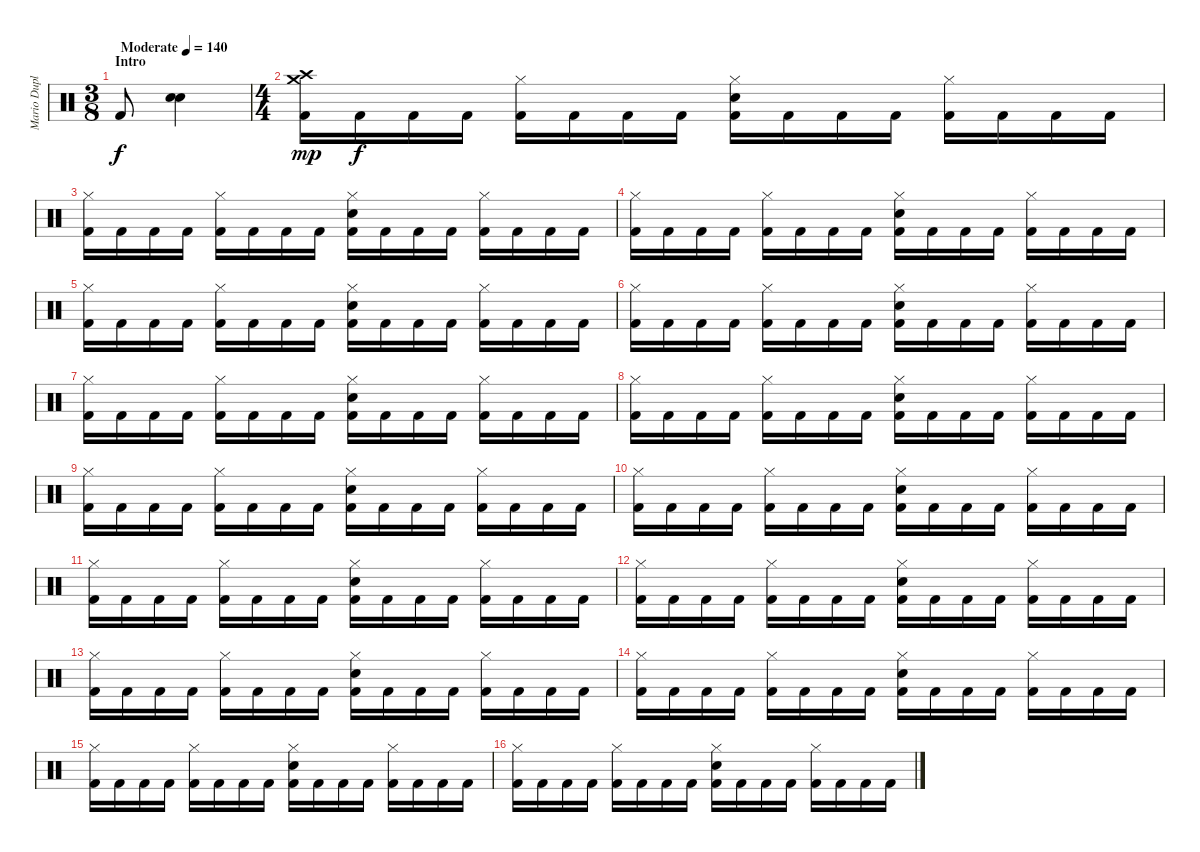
\track ("Mario Duplantier" "Mario Dupl") {instrument percussion}
\staff {score}
\articulation defaults
\ts (3 8)
\section ("" "Intro")
\tempo (140 "Moderate")
\clef neutral
\ks c "Kick (hit) 2".8{dy f}
("Electric Snare (hit)" "Snare (hit) 2").4 |
\ts (4 4)
("Crash medium (hit)" "Crash high (hit)" "Kick (hit) 2").16{dy mp} "Kick (hit) 2".16{dy f} "Kick (hit) 2".16 "Kick (hit) 2".16 ("Hi-Hat (closed)" "Kick (hit) 2").16 "Kick (hit) 2".16 "Kick (hit) 2".16 "Kick (hit) 2".16 ("Hi-Hat (closed)" "Snare (hit) 2" "Kick (hit) 2").16 "Kick (hit) 2".16 "Kick (hit) 2".16 "Kick (hit) 2".16 ("Hi-Hat (closed)" "Kick (hit) 2").16 "Kick (hit) 2".16 "Kick (hit) 2".16 "Kick (hit) 2".16 |
("Hi-Hat (closed)" "Kick (hit) 2").16 "Kick (hit) 2".16 "Kick (hit) 2".16 "Kick (hit) 2".16 ("Hi-Hat (closed)" "Kick (hit) 2").16 "Kick (hit) 2".16 "Kick (hit) 2".16 "Kick (hit) 2".16 ("Hi-Hat (closed)" "Snare (hit) 2" "Kick (hit) 2").16 "Kick (hit) 2".16 "Kick (hit) 2".16 "Kick (hit) 2".16 ("Hi-Hat (closed)" "Kick (hit) 2").16 "Kick (hit) 2".16 "Kick (hit) 2".16 "Kick (hit) 2".16 |
("Hi-Hat (closed)" "Kick (hit) 2").16 "Kick (hit) 2".16 "Kick (hit) 2".16 "Kick (hit) 2".16 ("Hi-Hat (closed)" "Kick (hit) 2").16 "Kick (hit) 2".16 "Kick (hit) 2".16 "Kick (hit) 2".16 ("Hi-Hat (closed)" "Snare (hit) 2" "Kick (hit) 2").16 "Kick (hit) 2".16 "Kick (hit) 2".16 "Kick (hit) 2".16 ("Hi-Hat (closed)" "Kick (hit) 2").16 "Kick (hit) 2".16 "Kick (hit) 2".16 "Kick (hit) 2".16 |
("Hi-Hat (closed)" "Kick (hit) 2").16 "Kick (hit) 2".16 "Kick (hit) 2".16 "Kick (hit) 2".16 ("Hi-Hat (closed)" "Kick (hit) 2").16 "Kick (hit) 2".16 "Kick (hit) 2".16 "Kick (hit) 2".16 ("Hi-Hat (closed)" "Snare (hit) 2" "Kick (hit) 2").16 "Kick (hit) 2".16 "Kick (hit) 2".16 "Kick (hit) 2".16 ("Hi-Hat (closed)" "Kick (hit) 2").16 "Kick (hit) 2".16 "Kick (hit) 2".16 "Kick (hit) 2".16 |
("Hi-Hat (closed)" "Kick (hit) 2").16 "Kick (hit) 2".16 "Kick (hit) 2".16 "Kick (hit) 2".16 ("Hi-Hat (closed)" "Kick (hit) 2").16 "Kick (hit) 2".16 "Kick (hit) 2".16 "Kick (hit) 2".16 ("Hi-Hat (closed)" "Snare (hit) 2" "Kick (hit) 2").16 "Kick (hit) 2".16 "Kick (hit) 2".16 "Kick (hit) 2".16 ("Hi-Hat (closed)" "Kick (hit) 2").16 "Kick (hit) 2".16 "Kick (hit) 2".16 "Kick (hit) 2".16 |
("Hi-Hat (closed)" "Kick (hit) 2").16 "Kick (hit) 2".16 "Kick (hit) 2".16 "Kick (hit) 2".16 ("Hi-Hat (closed)" "Kick (hit) 2").16 "Kick (hit) 2".16 "Kick (hit) 2".16 "Kick (hit) 2".16 ("Hi-Hat (closed)" "Snare (hit) 2" "Kick (hit) 2").16 "Kick (hit) 2".16 "Kick (hit) 2".16 "Kick (hit) 2".16 ("Hi-Hat (closed)" "Kick (hit) 2").16 "Kick (hit) 2".16 "Kick (hit) 2".16 "Kick (hit) 2".16 |
("Hi-Hat (closed)" "Kick (hit) 2").16 "Kick (hit) 2".16 "Kick (hit) 2".16 "Kick (hit) 2".16 ("Hi-Hat (closed)" "Kick (hit) 2").16 "Kick (hit) 2".16 "Kick (hit) 2".16 "Kick (hit) 2".16 ("Hi-Hat (closed)" "Snare (hit) 2" "Kick (hit) 2").16 "Kick (hit) 2".16 "Kick (hit) 2".16 "Kick (hit) 2".16 ("Hi-Hat (closed)" "Kick (hit) 2").16 "Kick (hit) 2".16 "Kick (hit) 2".16 "Kick (hit) 2".16 |
("Hi-Hat (closed)" "Kick (hit) 2").16 "Kick (hit) 2".16 "Kick (hit) 2".16 "Kick (hit) 2".16 ("Hi-Hat (closed)" "Kick (hit) 2").16 "Kick (hit) 2".16 "Kick (hit) 2".16 "Kick (hit) 2".16 ("Hi-Hat (closed)" "Snare (hit) 2" "Kick (hit) 2").16 "Kick (hit) 2".16 "Kick (hit) 2".16 "Kick (hit) 2".16 ("Hi-Hat (closed)" "Kick (hit) 2").16 "Kick (hit) 2".16 "Kick (hit) 2".16 "Kick (hit) 2".16 |
("Hi-Hat (closed)" "Kick (hit) 2").16 "Kick (hit) 2".16 "Kick (hit) 2".16 "Kick (hit) 2".16 ("Hi-Hat (closed)" "Kick (hit) 2").16 "Kick (hit) 2".16 "Kick (hit) 2".16 "Kick (hit) 2".16 ("Hi-Hat (closed)" "Snare (hit) 2" "Kick (hit) 2").16 "Kick (hit) 2".16 "Kick (hit) 2".16 "Kick (hit) 2".16 ("Hi-Hat (closed)" "Kick (hit) 2").16 "Kick (hit) 2".16 "Kick (hit) 2".16 "Kick (hit) 2".16 |
("Hi-Hat (closed)" "Kick (hit) 2").16 "Kick (hit) 2".16 "Kick (hit) 2".16 "Kick (hit) 2".16 ("Hi-Hat (closed)" "Kick (hit) 2").16 "Kick (hit) 2".16 "Kick (hit) 2".16 "Kick (hit) 2".16 ("Hi-Hat (closed)" "Snare (hit) 2" "Kick (hit) 2").16 "Kick (hit) 2".16 "Kick (hit) 2".16 "Kick (hit) 2".16 ("Hi-Hat (closed)" "Kick (hit) 2").16 "Kick (hit) 2".16 "Kick (hit) 2".16 "Kick (hit) 2".16 |
("Hi-Hat (closed)" "Kick (hit) 2").16 "Kick (hit) 2".16 "Kick (hit) 2".16 "Kick (hit) 2".16 ("Hi-Hat (closed)" "Kick (hit) 2").16 "Kick (hit) 2".16 "Kick (hit) 2".16 "Kick (hit) 2".16 ("Hi-Hat (closed)" "Snare (hit) 2" "Kick (hit) 2").16 "Kick (hit) 2".16 "Kick (hit) 2".16 "Kick (hit) 2".16 ("Hi-Hat (closed)" "Kick (hit) 2").16 "Kick (hit) 2".16 "Kick (hit) 2".16 "Kick (hit) 2".16 |
("Hi-Hat (closed)" "Kick (hit) 2").16 "Kick (hit) 2".16 "Kick (hit) 2".16 "Kick (hit) 2".16 ("Hi-Hat (closed)" "Kick (hit) 2").16 "Kick (hit) 2".16 "Kick (hit) 2".16 "Kick (hit) 2".16 ("Hi-Hat (closed)" "Snare (hit) 2" "Kick (hit) 2").16 "Kick (hit) 2".16 "Kick (hit) 2".16 "Kick (hit) 2".16 ("Hi-Hat (closed)" "Kick (hit) 2").16 "Kick (hit) 2".16 "Kick (hit) 2".16 "Kick (hit) 2".16 |
("Hi-Hat (closed)" "Kick (hit) 2").16 "Kick (hit) 2".16 "Kick (hit) 2".16 "Kick (hit) 2".16 ("Hi-Hat (closed)" "Kick (hit) 2").16 "Kick (hit) 2".16 "Kick (hit) 2".16 "Kick (hit) 2".16 ("Hi-Hat (closed)" "Snare (hit) 2" "Kick (hit) 2").16 "Kick (hit) 2".16 "Kick (hit) 2".16 "Kick (hit) 2".16 ("Hi-Hat (closed)" "Kick (hit) 2").16 "Kick (hit) 2".16 "Kick (hit) 2".16 "Kick (hit) 2".16 |
("Hi-Hat (closed)" "Kick (hit) 2").16 "Kick (hit) 2".16 "Kick (hit) 2".16 "Kick (hit) 2".16 ("Hi-Hat (closed)" "Kick (hit) 2").16 "Kick (hit) 2".16 "Kick (hit) 2".16 "Kick (hit) 2".16 ("Hi-Hat (closed)" "Snare (hit) 2" "Kick (hit) 2").16 "Kick (hit) 2".16 "Kick (hit) 2".16 "Kick (hit) 2".16 ("Hi-Hat (closed)" "Kick (hit) 2").16 "Kick (hit) 2".16 "Kick (hit) 2".16 "Kick (hit) 2".16 |
("Hi-Hat (closed)" "Kick (hit) 2").16 "Kick (hit) 2".16 "Kick (hit) 2".16 "Kick (hit) 2".16 ("Hi-Hat (closed)" "Kick (hit) 2").16 "Kick (hit) 2".16 "Kick (hit) 2".16 "Kick (hit) 2".16 ("Hi-Hat (closed)" "Snare (hit) 2" "Kick (hit) 2").16 "Kick (hit) 2".16 "Kick (hit) 2".16 "Kick (hit) 2".16 ("Hi-Hat (closed)" "Kick (hit) 2").16 "Kick (hit) 2".16 "Kick (hit) 2".16 "Kick (hit) 2".16
